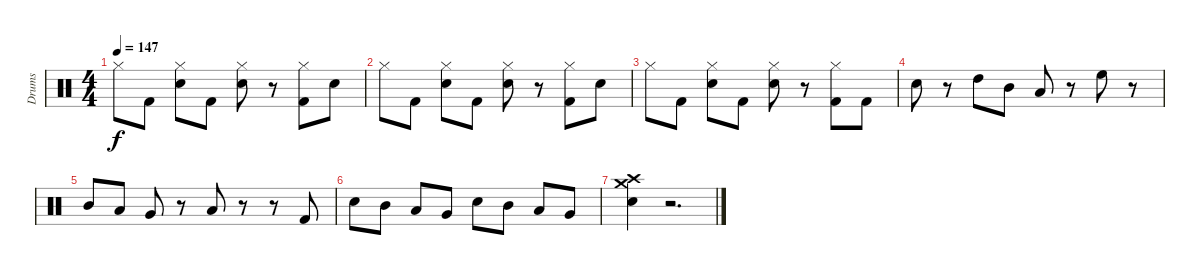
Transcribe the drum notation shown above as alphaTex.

\track ("Drums" "Drums") {instrument percussion}
\staff {score}
\articulation defaults
\ts (4 4)
\tempo 147
\clef neutral
\ks c "Hi-Hat (closed)".8{dy f} "Kick (hit) 2".8
("Hi-Hat (closed)" "Electric Snare (hit)").8 "Kick (hit) 2".8 ("Hi-Hat (closed)" "Electric Snare (hit)").8 r.8 ("Hi-Hat (closed)" "Kick (hit) 2").8 "Electric Snare (hit)".8 |
"Hi-Hat (closed)".8 "Kick (hit) 2".8 ("Hi-Hat (closed)" "Electric Snare (hit)").8 "Kick (hit) 2".8 ("Hi-Hat (closed)" "Electric Snare (hit)").8 r.8 ("Hi-Hat (closed)" "Kick (hit) 2").8 "Electric Snare (hit)".8 |
"Hi-Hat (closed)".8 "Kick (hit) 2".8 ("Hi-Hat (closed)" "Electric Snare (hit)").8 "Kick (hit) 2".8 ("Hi-Hat (closed)" "Electric Snare (hit)").8 r.8 ("Hi-Hat (closed)" "Kick (hit) 2").8 "Kick (hit) 2".8 |
"Electric Snare (hit)".8 r.8 "High Tom (hit)".8 "Mid Tom (hit)".8 "Low Tom (hit)".8 r.8 "High Floor Tom (hit)".8 r.8 |
"Mid Tom (hit)".8 "Low Tom (hit)".8 "Very Low Tom (hit)".8 r.8 "Low Floor Tom (hit)".8 r.8 r.8 "Kick (hit) 2".8 |
"Electric Snare (hit)".8 "Mid Tom (hit)".8 "Low Tom (hit)".8 "Very Low Tom (hit)".8 "Electric Snare (hit)".8 "Mid Tom (hit)".8 "Low Tom (hit)".8 "Very Low Tom (hit)".8 |
("Crash high (hit)" "Crash medium (hit)" "Electric Snare (hit)").4 r.2{d}
